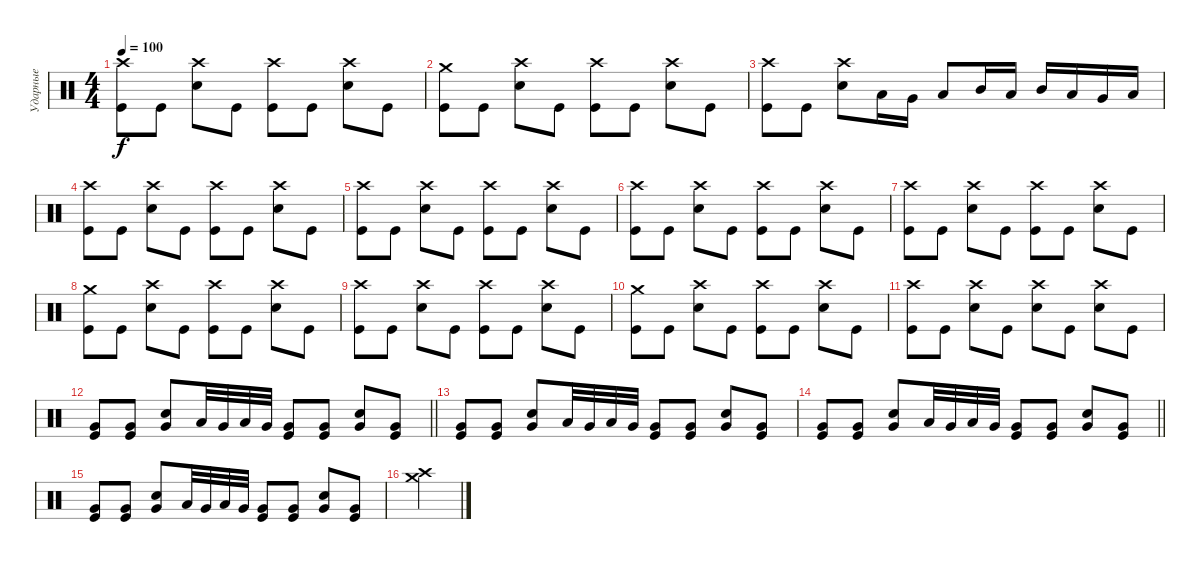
\track ("Ударные" "Ударные") {instrument percussion}
\staff {score}
\articulation defaults
\ts (4 4)
\tempo 100
\clef neutral
\ks c
("Crash high (hit)" "Kick (hit)").8{dy f} "Kick (hit)".8 ("Crash high (hit)" "Snare (hit) 2").8 "Kick (hit)".8 ("Crash high (hit)" "Kick (hit)").8 "Kick (hit)".8 ("Crash high (hit)" "Snare (hit) 2").8 "Kick (hit)".8 |
("Crash medium (hit)" "Kick (hit)").8 "Kick (hit)".8 ("Crash high (hit)" "Snare (hit) 2").8 "Kick (hit)".8 ("Crash high (hit)" "Kick (hit)").8 "Kick (hit)".8 ("Crash high (hit)" "Snare (hit) 2").8 "Kick (hit)".8 |
("Crash high (hit)" "Kick (hit)").8 "Kick (hit)".8 ("Crash high (hit)" "Snare (hit) 2").8 "Low Tom (hit)".16 "Very Low Tom (hit)".16 "Low Tom (hit)".8 "Mid Tom (hit)".16 "Low Tom (hit)".16 "Mid Tom (hit)".16 "Low Tom (hit)".16 "Very Low Tom (hit)".16 "Low Tom (hit)".16 |
("Crash high (hit)" "Kick (hit)").8 "Kick (hit)".8 ("Crash high (hit)" "Snare (hit) 2").8 "Kick (hit)".8 ("Crash high (hit)" "Kick (hit)").8 "Kick (hit)".8 ("Crash high (hit)" "Snare (hit) 2").8 "Kick (hit)".8 |
("Crash high (hit)" "Kick (hit)").8 "Kick (hit)".8 ("Crash high (hit)" "Snare (hit) 2").8 "Kick (hit)".8 ("Crash high (hit)" "Kick (hit)").8 "Kick (hit)".8 ("Crash high (hit)" "Snare (hit) 2").8 "Kick (hit)".8 |
("Crash high (hit)" "Kick (hit)").8 "Kick (hit)".8 ("Crash high (hit)" "Snare (hit) 2").8 "Kick (hit)".8 ("Crash high (hit)" "Kick (hit)").8 "Kick (hit)".8 ("Crash high (hit)" "Snare (hit) 2").8 "Kick (hit)".8 |
("Crash high (hit)" "Kick (hit)").8 "Kick (hit)".8 ("Crash high (hit)" "Snare (hit) 2").8 "Kick (hit)".8 ("Crash high (hit)" "Kick (hit)").8 "Kick (hit)".8 ("Crash high (hit)" "Snare (hit) 2").8 "Kick (hit)".8 |
("Crash medium (hit)" "Kick (hit)").8 "Kick (hit)".8 ("Crash high (hit)" "Snare (hit) 2").8 "Kick (hit)".8 ("Crash high (hit)" "Kick (hit)").8 "Kick (hit)".8 ("Crash high (hit)" "Snare (hit) 2").8 "Kick (hit)".8 |
("Crash high (hit)" "Kick (hit)").8 "Kick (hit)".8 ("Crash high (hit)" "Snare (hit) 2").8 "Kick (hit)".8 ("Crash high (hit)" "Kick (hit)").8 "Kick (hit)".8 ("Crash high (hit)" "Snare (hit) 2").8 "Kick (hit)".8 |
("Crash medium (hit)" "Kick (hit)").8 "Kick (hit)".8 ("Crash high (hit)" "Snare (hit) 2").8 "Kick (hit)".8 ("Crash high (hit)" "Kick (hit)").8 "Kick (hit)".8 ("Crash high (hit)" "Snare (hit) 2").8 "Kick (hit)".8 |
("Crash high (hit)" "Kick (hit)").8 "Kick (hit)".8 ("Crash high (hit)" "Snare (hit) 2").8 "Kick (hit)".8 ("Crash high (hit)" "Snare (hit) 2").8 "Kick (hit)".8 ("Crash high (hit)" "Snare (hit) 2").8 "Kick (hit)".8 |
\barLineRight lightlight
("Kick (hit)" "Very Low Tom (hit)").8 ("Kick (hit)" "Very Low Tom (hit)").8 ("Snare (hit) 2" "Very Low Tom (hit)").8 "Low Tom (hit)".32 "Very Low Tom (hit)".32 "Low Tom (hit)".32 "Very Low Tom (hit)".32 ("Kick (hit)" "Very Low Tom (hit)").8 ("Kick (hit)" "Very Low Tom (hit)").8 ("Snare (hit) 2" "Very Low Tom (hit)").8 ("Kick (hit)" "Very Low Tom (hit)").8 |
("Kick (hit)" "Very Low Tom (hit)").8 ("Kick (hit)" "Very Low Tom (hit)").8 ("Snare (hit) 2" "Very Low Tom (hit)").8 "Low Tom (hit)".32 "Very Low Tom (hit)".32 "Low Tom (hit)".32 "Very Low Tom (hit)".32 ("Kick (hit)" "Very Low Tom (hit)").8 ("Kick (hit)" "Very Low Tom (hit)").8 ("Snare (hit) 2" "Very Low Tom (hit)").8 ("Kick (hit)" "Very Low Tom (hit)").8 |
\barLineRight lightlight
("Kick (hit)" "Very Low Tom (hit)").8 ("Kick (hit)" "Very Low Tom (hit)").8 ("Snare (hit) 2" "Very Low Tom (hit)").8 "Low Tom (hit)".32 "Very Low Tom (hit)".32 "Low Tom (hit)".32 "Very Low Tom (hit)".32 ("Kick (hit)" "Very Low Tom (hit)").8 ("Kick (hit)" "Very Low Tom (hit)").8 ("Snare (hit) 2" "Very Low Tom (hit)").8 ("Kick (hit)" "Very Low Tom (hit)").8 |
("Kick (hit)" "Very Low Tom (hit)").8 ("Kick (hit)" "Very Low Tom (hit)").8 ("Snare (hit) 2" "Very Low Tom (hit)").8 "Low Tom (hit)".32 "Very Low Tom (hit)".32 "Low Tom (hit)".32 "Very Low Tom (hit)".32 ("Kick (hit)" "Very Low Tom (hit)").8 ("Kick (hit)" "Very Low Tom (hit)").8 ("Snare (hit) 2" "Very Low Tom (hit)").8 ("Kick (hit)" "Very Low Tom (hit)").8 |
("Crash high (hit)" "Crash medium (hit)").4
